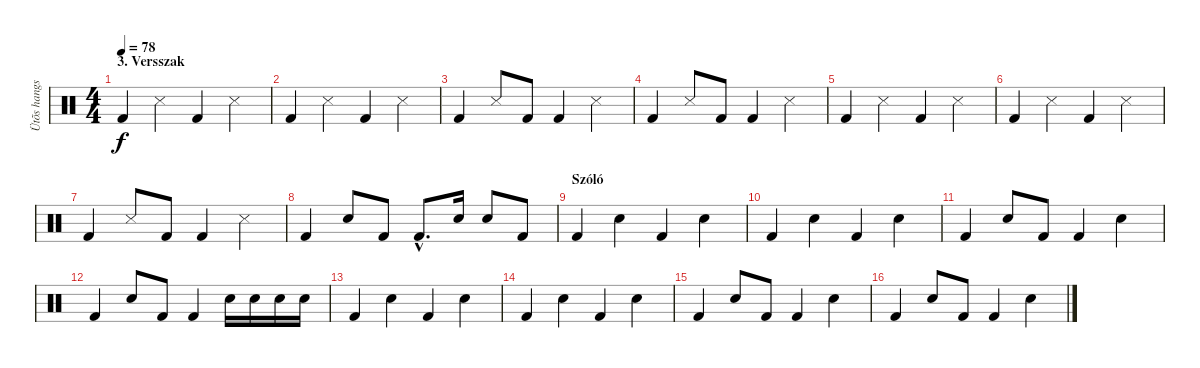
\track ("Ütõs hangszer" "Ütõs hangs") {instrument percussion}
\staff {score}
\articulation defaults
\ts (4 4)
\section ("" "3. Versszak")
\tempo 78
\clef neutral
\ks c "Kick (hit) 2".4{dy f} "Snare (side stick) 3".4 "Kick (hit) 2".4 "Snare (side stick) 3".4
|
"Kick (hit) 2".4 "Snare (side stick) 3".4 "Kick (hit) 2".4 "Snare (side stick) 3".4 |
"Kick (hit) 2".4 "Snare (side stick) 3".8 "Kick (hit) 2".8 "Kick (hit) 2".4 "Snare (side stick) 3".4 |
"Kick (hit) 2".4 "Snare (side stick) 3".8 "Kick (hit) 2".8 "Kick (hit) 2".4 "Snare (side stick) 3".4 |
"Kick (hit) 2".4 "Snare (side stick) 3".4 "Kick (hit) 2".4 "Snare (side stick) 3".4 |
"Kick (hit) 2".4 "Snare (side stick) 3".4 "Kick (hit) 2".4 "Snare (side stick) 3".4 |
"Kick (hit) 2".4 "Snare (side stick) 3".8 "Kick (hit) 2".8 "Kick (hit) 2".4 "Snare (side stick) 3".4 |
"Kick (hit) 2".4 "Snare (hit) 2".8 "Kick (hit) 2".8 "Kick (hit) 2"{hac}.8{d} "Snare (hit) 2".16 "Snare (hit) 2".8 "Kick (hit) 2".8 |
\section ("" "Szóló")
"Kick (hit) 2".4 "Snare (hit) 2".4 "Kick (hit) 2".4 "Snare (hit) 2".4 |
"Kick (hit) 2".4 "Snare (hit) 2".4 "Kick (hit) 2".4 "Snare (hit) 2".4 |
"Kick (hit) 2".4 "Snare (hit) 2".8 "Kick (hit) 2".8 "Kick (hit) 2".4 "Snare (hit) 2".4 |
"Kick (hit) 2".4 "Snare (hit) 2".8 "Kick (hit) 2".8 "Kick (hit) 2".4 "Snare (hit) 2".16 "Snare (hit) 2".16 "Snare (hit) 2".16 "Snare (hit) 2".16 |
"Kick (hit) 2".4 "Snare (hit) 2".4 "Kick (hit) 2".4 "Snare (hit) 2".4 |
"Kick (hit) 2".4 "Snare (hit) 2".4 "Kick (hit) 2".4 "Snare (hit) 2".4 |
"Kick (hit) 2".4 "Snare (hit) 2".8 "Kick (hit) 2".8 "Kick (hit) 2".4 "Snare (hit) 2".4 |
"Kick (hit) 2".4 "Snare (hit) 2".8 "Kick (hit) 2".8 "Kick (hit) 2".4 "Snare (hit) 2".4
